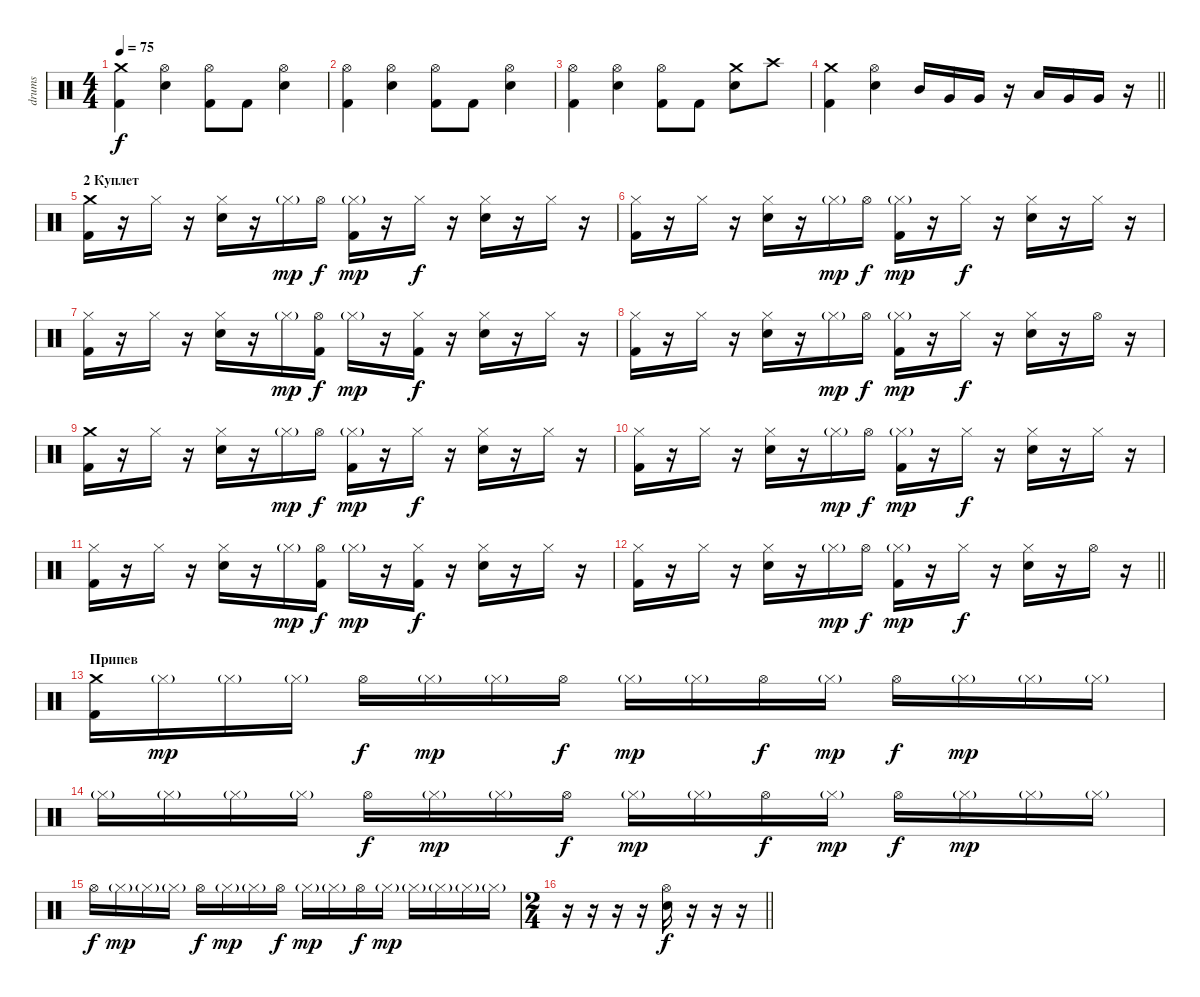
\track ("drums" "drums") {instrument percussion}
\staff {score}
\articulation defaults
\ts (4 4)
\tempo 75
\clef neutral
\ks c
("Crash medium (hit)" "Kick (hit) 2").4{dy f} ("Hi-Hat (open)" "Snare (hit) 2").4 ("Hi-Hat (open)" "Kick (hit) 2").8 "Kick (hit) 2".8 ("Hi-Hat (open)" "Snare (hit) 2").4 |
("Hi-Hat (open)" "Kick (hit) 2").4 ("Hi-Hat (open)" "Snare (hit) 2").4 ("Hi-Hat (open)" "Kick (hit) 2").8 "Kick (hit) 2".8 ("Hi-Hat (open)" "Snare (hit) 2").4 |
("Hi-Hat (open)" "Kick (hit) 2").4 ("Hi-Hat (open)" "Snare (hit) 2").4 ("Hi-Hat (open)" "Kick (hit) 2").8 "Kick (hit) 2".8 ("Crash medium (hit)" "Snare (hit) 2").8 "Crash high (hit)".8 |
\barLineRight lightlight
("Crash medium (hit)" "Kick (hit) 2").4 ("Hi-Hat (open)" "Snare (hit) 2").4 "Mid Tom (hit)".16 "Very Low Tom (hit)".16 "Very Low Tom (hit)".16 r.16 "Low Tom (hit)".16 "Very Low Tom (hit)".16 "Very Low Tom (hit)".16 r.16 |
\section ("" "2 Куплет")
("Crash medium (hit)" "Kick (hit) 2").16 r.16 "Hi-Hat (closed)".16 r.16 ("Hi-Hat (closed)" "Snare (hit) 2").16 r.16 "Hi-Hat (closed)"{g}.16{dy mp} "Hi-Hat (open)".16{dy f} ("Hi-Hat (closed)"{g} "Kick (hit) 2").16{dy mp} r.16 "Hi-Hat (closed)".16{dy f} r.16 ("Hi-Hat (closed)" "Snare (hit) 2").16 r.16 "Hi-Hat (closed)".16 r.16 |
("Hi-Hat (closed)" "Kick (hit) 2").16 r.16 "Hi-Hat (closed)".16 r.16 ("Hi-Hat (closed)" "Snare (hit) 2").16 r.16 "Hi-Hat (closed)"{g}.16{dy mp} "Hi-Hat (open)".16{dy f} ("Hi-Hat (closed)"{g} "Kick (hit) 2").16{dy mp} r.16 "Hi-Hat (closed)".16{dy f} r.16 ("Hi-Hat (closed)" "Snare (hit) 2").16 r.16 "Hi-Hat (closed)".16 r.16 |
("Hi-Hat (closed)" "Kick (hit) 2").16 r.16 "Hi-Hat (closed)".16 r.16 ("Hi-Hat (closed)" "Snare (hit) 2").16 r.16 "Hi-Hat (closed)"{g}.16{dy mp} ("Hi-Hat (open)" "Kick (hit) 2").16{dy f} "Hi-Hat (closed)"{g}.16{dy mp} r.16 ("Hi-Hat (closed)" "Kick (hit) 2").16{dy f} r.16 ("Hi-Hat (closed)" "Snare (hit) 2").16 r.16 "Hi-Hat (closed)".16 r.16 |
("Hi-Hat (closed)" "Kick (hit) 2").16 r.16 "Hi-Hat (closed)".16 r.16 ("Hi-Hat (closed)" "Snare (hit) 2").16 r.16 "Hi-Hat (closed)"{g}.16{dy mp} "Hi-Hat (open)".16{dy f} ("Hi-Hat (closed)"{g} "Kick (hit) 2").16{dy mp} r.16 "Hi-Hat (closed)".16{dy f} r.16 ("Hi-Hat (closed)" "Snare (hit) 2").16 r.16 "Hi-Hat (open)".16 r.16 |
("Crash medium (hit)" "Kick (hit) 2").16 r.16 "Hi-Hat (closed)".16 r.16 ("Hi-Hat (closed)" "Snare (hit) 2").16 r.16 "Hi-Hat (closed)"{g}.16{dy mp} "Hi-Hat (open)".16{dy f} ("Hi-Hat (closed)"{g} "Kick (hit) 2").16{dy mp} r.16 "Hi-Hat (closed)".16{dy f} r.16 ("Hi-Hat (closed)" "Snare (hit) 2").16 r.16 "Hi-Hat (closed)".16 r.16 |
("Hi-Hat (closed)" "Kick (hit) 2").16 r.16 "Hi-Hat (closed)".16 r.16 ("Hi-Hat (closed)" "Snare (hit) 2").16 r.16 "Hi-Hat (closed)"{g}.16{dy mp} "Hi-Hat (open)".16{dy f} ("Hi-Hat (closed)"{g} "Kick (hit) 2").16{dy mp} r.16 "Hi-Hat (closed)".16{dy f} r.16 ("Hi-Hat (closed)" "Snare (hit) 2").16 r.16 "Hi-Hat (closed)".16 r.16 |
("Hi-Hat (closed)" "Kick (hit) 2").16 r.16 "Hi-Hat (closed)".16 r.16 ("Hi-Hat (closed)" "Snare (hit) 2").16 r.16 "Hi-Hat (closed)"{g}.16{dy mp} ("Hi-Hat (open)" "Kick (hit) 2").16{dy f} "Hi-Hat (closed)"{g}.16{dy mp} r.16 ("Hi-Hat (closed)" "Kick (hit) 2").16{dy f} r.16 ("Hi-Hat (closed)" "Snare (hit) 2").16 r.16 "Hi-Hat (closed)".16 r.16 |
\barLineRight lightlight
("Hi-Hat (closed)" "Kick (hit) 2").16 r.16 "Hi-Hat (closed)".16 r.16 ("Hi-Hat (closed)" "Snare (hit) 2").16 r.16 "Hi-Hat (closed)"{g}.16{dy mp} "Hi-Hat (open)".16{dy f} ("Hi-Hat (closed)"{g} "Kick (hit) 2").16{dy mp} r.16 "Hi-Hat (closed)".16{dy f} r.16 ("Hi-Hat (closed)" "Snare (hit) 2").16 r.16 "Hi-Hat (open)".16 r.16 |
\section ("" "Припев")
("Crash medium (hit)" "Kick (hit) 2").16 "Hi-Hat (closed)"{g}.16{dy mp} "Hi-Hat (closed)"{g}.16 "Hi-Hat (closed)"{g}.16 "Hi-Hat (open)".16{dy f} "Hi-Hat (closed)"{g}.16{dy mp} "Hi-Hat (closed)"{g}.16 "Hi-Hat (open)".16{dy f} "Hi-Hat (closed)"{g}.16{dy mp} "Hi-Hat (closed)"{g}.16 "Hi-Hat (open)".16{dy f} "Hi-Hat (closed)"{g}.16{dy mp} "Hi-Hat (open)".16{dy f} "Hi-Hat (closed)"{g}.16{dy mp} "Hi-Hat (closed)"{g}.16 "Hi-Hat (closed)"{g}.16 |
"Hi-Hat (closed)"{g}.16 "Hi-Hat (closed)"{g}.16 "Hi-Hat (closed)"{g}.16 "Hi-Hat (closed)"{g}.16 "Hi-Hat (open)".16{dy f} "Hi-Hat (closed)"{g}.16{dy mp} "Hi-Hat (closed)"{g}.16 "Hi-Hat (open)".16{dy f} "Hi-Hat (closed)"{g}.16{dy mp} "Hi-Hat (closed)"{g}.16 "Hi-Hat (open)".16{dy f} "Hi-Hat (closed)"{g}.16{dy mp} "Hi-Hat (open)".16{dy f} "Hi-Hat (closed)"{g}.16{dy mp} "Hi-Hat (closed)"{g}.16 "Hi-Hat (closed)"{g}.16 |
"Hi-Hat (open)".16{dy f} "Hi-Hat (closed)"{g}.16{dy mp} "Hi-Hat (closed)"{g}.16 "Hi-Hat (closed)"{g}.16 "Hi-Hat (open)".16{dy f} "Hi-Hat (closed)"{g}.16{dy mp} "Hi-Hat (closed)"{g}.16 "Hi-Hat (open)".16{dy f} "Hi-Hat (closed)"{g}.16{dy mp} "Hi-Hat (closed)"{g}.16 "Hi-Hat (open)".16{dy f} "Hi-Hat (closed)"{g}.16{dy mp} "Hi-Hat (closed)"{g}.16 "Hi-Hat (closed)"{g}.16 "Hi-Hat (closed)"{g}.16 "Hi-Hat (closed)"{g}.16 |
\ts (2 4)
\barLineRight lightlight
r.16 r.16 r.16 r.16 ("Snare (hit) 2" "Hi-Hat (open)").16{dy f} r.16 r.16 r.16
